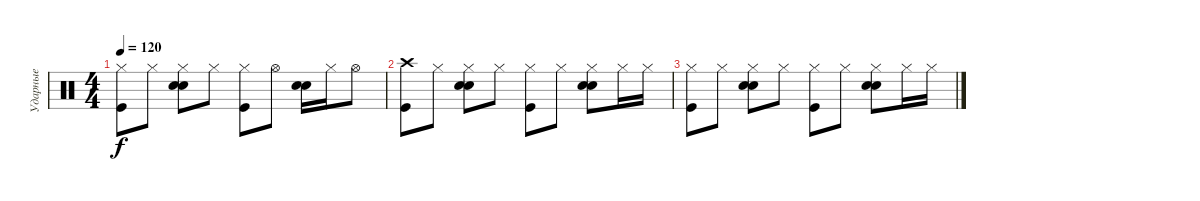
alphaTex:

\track ("Ударные" "Ударные") {instrument percussion}
\staff {score}
\articulation defaults
\ts (4 4)
\tempo 120
\clef neutral
\ks c
("Hi-Hat (closed)" "Kick (hit)").8{dy f} "Hi-Hat (closed)".8 ("Hi-Hat (closed)" "Hand Clap (hit)" "Electric Snare (hit)").8 "Hi-Hat (closed)".8 ("Hi-Hat (closed)" "Kick (hit)").8 "Hi-Hat (open)".8 ("Hand Clap (hit)" "Electric Snare (hit)").16 "Hi-Hat (closed)".16 "Hi-Hat (open)".8 |
("Crash high (hit)" "Kick (hit)").8{volume 0} "Hi-Hat (closed)".8 ("Hi-Hat (closed)" "Hand Clap (hit)" "Electric Snare (hit)").8 "Hi-Hat (closed)".8 ("Hi-Hat (closed)" "Kick (hit)").8 "Hi-Hat (closed)".8 ("Hi-Hat (closed)" "Hand Clap (hit)" "Electric Snare (hit)").8 "Hi-Hat (closed)".16 "Hi-Hat (closed)".16 |
("Hi-Hat (closed)" "Kick (hit)").8 "Hi-Hat (closed)".8 ("Hi-Hat (closed)" "Hand Clap (hit)" "Electric Snare (hit)").8 "Hi-Hat (closed)".8 ("Hi-Hat (closed)" "Kick (hit)").8 "Hi-Hat (closed)".8 ("Hi-Hat (closed)" "Hand Clap (hit)" "Electric Snare (hit)").8 "Hi-Hat (closed)".16 "Hi-Hat (closed)".16
